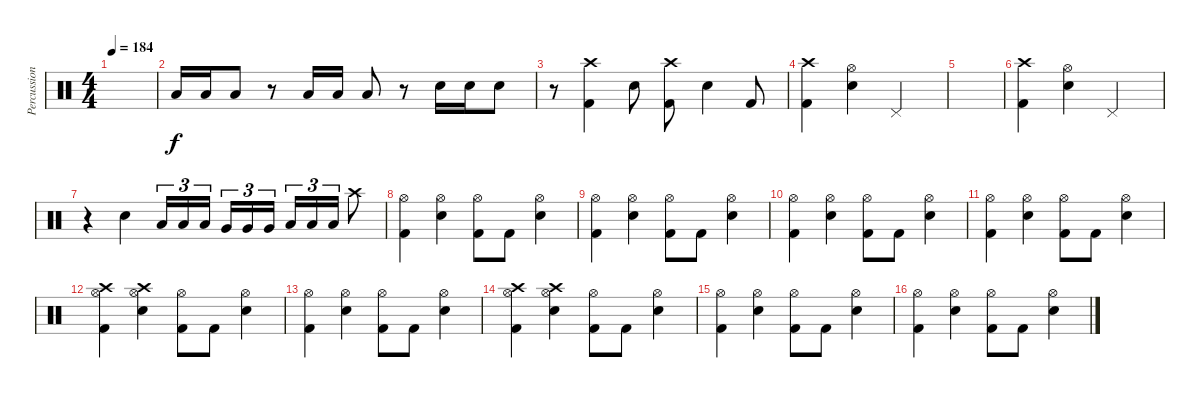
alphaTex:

\track ("Percussion" "Percussion") {instrument percussion}
\staff {score}
\articulation defaults
\ts (4 4)
\tempo 184
\clef neutral
\ks c
|
"Low Floor Tom (hit)".16 "Low Floor Tom (hit)".16 "Low Floor Tom (hit)".8 r.8 "Low Floor Tom (hit)".16 "Low Floor Tom (hit)".16 "Low Floor Tom (hit)".8 r.8 "Snare (hit) 2".16 "Snare (hit) 2".16 "Snare (hit) 2".8 |
r.8 ("Crash high (hit)" "Kick (hit) 2").4 "Snare (hit) 2".8 ("Crash high (hit)" "Kick (hit) 2").8 "Snare (hit) 2".4 "Kick (hit) 2".8 |
("Crash high (hit)" "Kick (hit) 2").4 ("Hi-Hat (open)" "Snare (hit) 2").4 "Pedal Hi-Hat (hit)".2 |
|
("Crash high (hit)" "Kick (hit) 2").4 ("Hi-Hat (open)" "Snare (hit) 2").4 "Pedal Hi-Hat (hit)".2 |
r.4 "Snare (hit) 2".4 "Low Tom (hit)".16{tu (3 2)} "Low Tom (hit)".16{tu (3 2)} "Low Tom (hit)".16{tu (3 2) beam splitsecondary} "Very Low Tom (hit)".16{tu (3 2)} "Very Low Tom (hit)".16{tu (3 2)} "Very Low Tom (hit)".16{tu (3 2)} "Low Floor Tom (hit)".16{tu (3 2)} "Low Floor Tom (hit)".16{tu (3 2)} "Low Floor Tom (hit)".16{tu (3 2)} "Crash high (hit)".8 |
("Hi-Hat (open)" "Kick (hit) 2").4 ("Hi-Hat (open)" "Snare (hit) 2").4 ("Hi-Hat (open)" "Kick (hit) 2").8 "Kick (hit) 2".8 ("Hi-Hat (open)" "Snare (hit) 2").4 |
("Hi-Hat (open)" "Kick (hit) 2").4 ("Hi-Hat (open)" "Snare (hit) 2").4 ("Hi-Hat (open)" "Kick (hit) 2").8 "Kick (hit) 2".8 ("Hi-Hat (open)" "Snare (hit) 2").4 |
("Hi-Hat (open)" "Kick (hit) 2").4 ("Hi-Hat (open)" "Snare (hit) 2").4 ("Hi-Hat (open)" "Kick (hit) 2").8 "Kick (hit) 2".8 ("Hi-Hat (open)" "Snare (hit) 2").4 |
("Hi-Hat (open)" "Kick (hit) 2").4 ("Hi-Hat (open)" "Snare (hit) 2").4 ("Hi-Hat (open)" "Kick (hit) 2").8 "Kick (hit) 2".8 ("Hi-Hat (open)" "Snare (hit) 2").4 |
("Crash high (hit)" "Hi-Hat (open)" "Kick (hit) 2").4 ("Crash high (hit)" "Hi-Hat (open)" "Snare (hit) 2").4 ("Hi-Hat (open)" "Kick (hit) 2").8 "Kick (hit) 2".8 ("Hi-Hat (open)" "Snare (hit) 2").4 |
("Hi-Hat (open)" "Kick (hit) 2").4 ("Hi-Hat (open)" "Snare (hit) 2").4 ("Hi-Hat (open)" "Kick (hit) 2").8 "Kick (hit) 2".8 ("Hi-Hat (open)" "Snare (hit) 2").4 |
("Crash high (hit)" "Hi-Hat (open)" "Kick (hit) 2").4 ("Crash high (hit)" "Hi-Hat (open)" "Snare (hit) 2").4 ("Hi-Hat (open)" "Kick (hit) 2").8 "Kick (hit) 2".8 ("Hi-Hat (open)" "Snare (hit) 2").4 |
("Hi-Hat (open)" "Kick (hit) 2").4 ("Hi-Hat (open)" "Snare (hit) 2").4 ("Hi-Hat (open)" "Kick (hit) 2").8 "Kick (hit) 2".8 ("Hi-Hat (open)" "Snare (hit) 2").4 |
("Hi-Hat (open)" "Kick (hit) 2").4 ("Hi-Hat (open)" "Snare (hit) 2").4 ("Hi-Hat (open)" "Kick (hit) 2").8 "Kick (hit) 2".8 ("Hi-Hat (open)" "Snare (hit) 2").4
